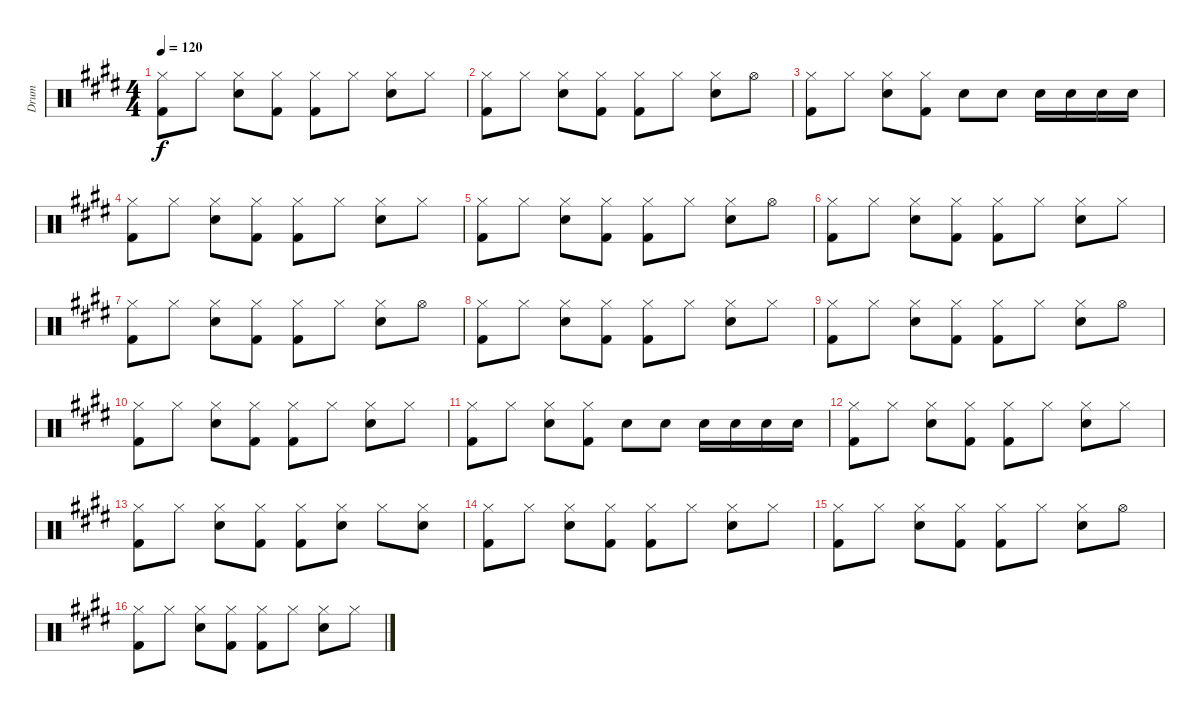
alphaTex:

\track ("Drum" "Drum") {instrument percussion}
\staff {score}
\articulation defaults
\ts (4 4)
\tempo 120
\clef neutral
\ks e
("Hi-Hat (closed)" "Kick (hit) 2").8{dy f} "Hi-Hat (closed)".8 ("Hi-Hat (closed)" "Snare (hit) 2").8 ("Hi-Hat (closed)" "Kick (hit) 2").8 ("Hi-Hat (closed)" "Kick (hit) 2").8 "Hi-Hat (closed)".8 ("Hi-Hat (closed)" "Snare (hit) 2").8 "Hi-Hat (closed)".8 |
("Hi-Hat (closed)" "Kick (hit) 2").8 "Hi-Hat (closed)".8 ("Hi-Hat (closed)" "Snare (hit) 2").8 ("Hi-Hat (closed)" "Kick (hit) 2").8 ("Hi-Hat (closed)" "Kick (hit) 2").8 "Hi-Hat (closed)".8 ("Hi-Hat (closed)" "Snare (hit) 2").8 "Hi-Hat (open)".8 |
("Hi-Hat (closed)" "Kick (hit) 2").8 "Hi-Hat (closed)".8 ("Hi-Hat (closed)" "Snare (hit) 2").8 ("Hi-Hat (closed)" "Kick (hit) 2").8 "Snare (hit) 2".8 "Snare (hit) 2".8 "Snare (hit) 2".16 "Snare (hit) 2".16 "Snare (hit) 2".16 "Snare (hit) 2".16 |
("Hi-Hat (closed)" "Kick (hit) 2").8 "Hi-Hat (closed)".8 ("Hi-Hat (closed)" "Snare (hit) 2").8 ("Hi-Hat (closed)" "Kick (hit) 2").8 ("Hi-Hat (closed)" "Kick (hit) 2").8 "Hi-Hat (closed)".8 ("Hi-Hat (closed)" "Snare (hit) 2").8 "Hi-Hat (closed)".8 |
("Hi-Hat (closed)" "Kick (hit) 2").8 "Hi-Hat (closed)".8 ("Hi-Hat (closed)" "Snare (hit) 2").8 ("Hi-Hat (closed)" "Kick (hit) 2").8 ("Hi-Hat (closed)" "Kick (hit) 2").8 "Hi-Hat (closed)".8 ("Hi-Hat (closed)" "Snare (hit) 2").8 "Hi-Hat (open)".8 |
("Hi-Hat (closed)" "Kick (hit) 2").8 "Hi-Hat (closed)".8 ("Hi-Hat (closed)" "Snare (hit) 2").8 ("Hi-Hat (closed)" "Kick (hit) 2").8 ("Hi-Hat (closed)" "Kick (hit) 2").8 "Hi-Hat (closed)".8 ("Hi-Hat (closed)" "Snare (hit) 2").8 "Hi-Hat (closed)".8 |
("Hi-Hat (closed)" "Kick (hit) 2").8 "Hi-Hat (closed)".8 ("Hi-Hat (closed)" "Snare (hit) 2").8 ("Hi-Hat (closed)" "Kick (hit) 2").8 ("Hi-Hat (closed)" "Kick (hit) 2").8 "Hi-Hat (closed)".8 ("Hi-Hat (closed)" "Snare (hit) 2").8 "Hi-Hat (open)".8 |
("Hi-Hat (closed)" "Kick (hit) 2").8 "Hi-Hat (closed)".8 ("Hi-Hat (closed)" "Snare (hit) 2").8 ("Hi-Hat (closed)" "Kick (hit) 2").8 ("Hi-Hat (closed)" "Kick (hit) 2").8 "Hi-Hat (closed)".8 ("Hi-Hat (closed)" "Snare (hit) 2").8 "Hi-Hat (closed)".8 |
("Hi-Hat (closed)" "Kick (hit) 2").8 "Hi-Hat (closed)".8 ("Hi-Hat (closed)" "Snare (hit) 2").8 ("Hi-Hat (closed)" "Kick (hit) 2").8 ("Hi-Hat (closed)" "Kick (hit) 2").8 "Hi-Hat (closed)".8 ("Hi-Hat (closed)" "Snare (hit) 2").8 "Hi-Hat (open)".8 |
("Hi-Hat (closed)" "Kick (hit) 2").8 "Hi-Hat (closed)".8 ("Hi-Hat (closed)" "Snare (hit) 2").8 ("Hi-Hat (closed)" "Kick (hit) 2").8 ("Hi-Hat (closed)" "Kick (hit) 2").8 "Hi-Hat (closed)".8 ("Hi-Hat (closed)" "Snare (hit) 2").8 "Hi-Hat (closed)".8 |
("Hi-Hat (closed)" "Kick (hit) 2").8 "Hi-Hat (closed)".8 ("Hi-Hat (closed)" "Snare (hit) 2").8 ("Hi-Hat (closed)" "Kick (hit) 2").8 "Snare (hit) 2".8 "Snare (hit) 2".8 "Snare (hit) 2".16 "Snare (hit) 2".16 "Snare (hit) 2".16 "Snare (hit) 2".16 |
("Hi-Hat (closed)" "Kick (hit) 2").8 "Hi-Hat (closed)".8 ("Hi-Hat (closed)" "Snare (hit) 2").8 ("Hi-Hat (closed)" "Kick (hit) 2").8 ("Hi-Hat (closed)" "Kick (hit) 2").8 "Hi-Hat (closed)".8 ("Hi-Hat (closed)" "Snare (hit) 2").8 "Hi-Hat (closed)".8 |
("Hi-Hat (closed)" "Kick (hit) 2").8 "Hi-Hat (closed)".8 ("Hi-Hat (closed)" "Snare (hit) 2").8 ("Hi-Hat (closed)" "Kick (hit) 2").8 ("Hi-Hat (closed)" "Kick (hit) 2").8 ("Hi-Hat (closed)" "Snare (hit) 2").8 "Hi-Hat (closed)".8 ("Hi-Hat (closed)" "Snare (hit) 2").8 |
("Hi-Hat (closed)" "Kick (hit) 2").8 "Hi-Hat (closed)".8 ("Hi-Hat (closed)" "Snare (hit) 2").8 ("Hi-Hat (closed)" "Kick (hit) 2").8 ("Hi-Hat (closed)" "Kick (hit) 2").8 "Hi-Hat (closed)".8 ("Hi-Hat (closed)" "Snare (hit) 2").8 "Hi-Hat (closed)".8 |
("Hi-Hat (closed)" "Kick (hit) 2").8 "Hi-Hat (closed)".8 ("Hi-Hat (closed)" "Snare (hit) 2").8 ("Hi-Hat (closed)" "Kick (hit) 2").8 ("Hi-Hat (closed)" "Kick (hit) 2").8 "Hi-Hat (closed)".8 ("Hi-Hat (closed)" "Snare (hit) 2").8 "Hi-Hat (open)".8 |
("Hi-Hat (closed)" "Kick (hit) 2").8 "Hi-Hat (closed)".8 ("Hi-Hat (closed)" "Snare (hit) 2").8 ("Hi-Hat (closed)" "Kick (hit) 2").8 ("Hi-Hat (closed)" "Kick (hit) 2").8 "Hi-Hat (closed)".8 ("Hi-Hat (closed)" "Snare (hit) 2").8 "Hi-Hat (closed)".8
